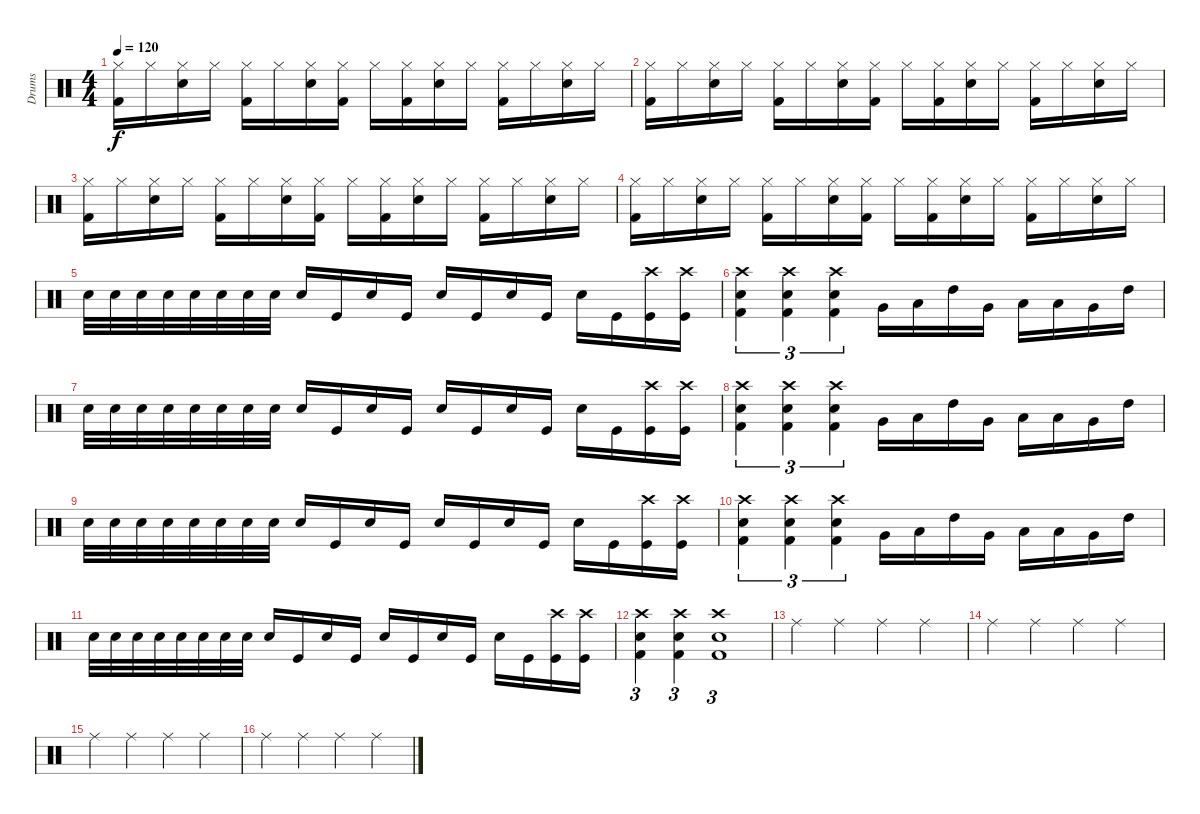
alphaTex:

\track ("Drums" "Drums") {instrument percussion}
\staff {score}
\articulation defaults
\ts (4 4)
\tempo 120
\clef neutral
\ks c
("Hi-Hat (closed)" "Kick (hit) 2").16{dy f} "Hi-Hat (closed)".16 ("Hi-Hat (closed)" "Electric Snare (hit)").16 "Hi-Hat (closed)".16 ("Hi-Hat (closed)" "Kick (hit) 2").16 "Hi-Hat (closed)".16 ("Hi-Hat (closed)" "Electric Snare (hit)").16 ("Hi-Hat (closed)" "Kick (hit) 2").16 "Hi-Hat (closed)".16 ("Hi-Hat (closed)" "Kick (hit) 2").16 ("Hi-Hat (closed)" "Electric Snare (hit)").16 "Hi-Hat (closed)".16 ("Hi-Hat (closed)" "Kick (hit) 2").16 "Hi-Hat (closed)".16 ("Hi-Hat (closed)" "Electric Snare (hit)").16 "Hi-Hat (closed)".16 |
("Hi-Hat (closed)" "Kick (hit) 2").16 "Hi-Hat (closed)".16 ("Hi-Hat (closed)" "Electric Snare (hit)").16 "Hi-Hat (closed)".16 ("Hi-Hat (closed)" "Kick (hit) 2").16 "Hi-Hat (closed)".16 ("Hi-Hat (closed)" "Electric Snare (hit)").16 ("Hi-Hat (closed)" "Kick (hit) 2").16 "Hi-Hat (closed)".16 ("Hi-Hat (closed)" "Kick (hit) 2").16 ("Hi-Hat (closed)" "Electric Snare (hit)").16 "Hi-Hat (closed)".16 ("Hi-Hat (closed)" "Kick (hit) 2").16 "Hi-Hat (closed)".16 ("Hi-Hat (closed)" "Electric Snare (hit)").16 "Hi-Hat (closed)".16 |
("Hi-Hat (closed)" "Kick (hit) 2").16 "Hi-Hat (closed)".16 ("Hi-Hat (closed)" "Electric Snare (hit)").16 "Hi-Hat (closed)".16 ("Hi-Hat (closed)" "Kick (hit) 2").16 "Hi-Hat (closed)".16 ("Hi-Hat (closed)" "Electric Snare (hit)").16 ("Hi-Hat (closed)" "Kick (hit) 2").16 "Hi-Hat (closed)".16 ("Hi-Hat (closed)" "Kick (hit) 2").16 ("Hi-Hat (closed)" "Electric Snare (hit)").16 "Hi-Hat (closed)".16 ("Hi-Hat (closed)" "Kick (hit) 2").16 "Hi-Hat (closed)".16 ("Hi-Hat (closed)" "Electric Snare (hit)").16 "Hi-Hat (closed)".16 |
("Hi-Hat (closed)" "Kick (hit) 2").16 "Hi-Hat (closed)".16 ("Hi-Hat (closed)" "Electric Snare (hit)").16 "Hi-Hat (closed)".16 ("Hi-Hat (closed)" "Kick (hit) 2").16 "Hi-Hat (closed)".16 ("Hi-Hat (closed)" "Electric Snare (hit)").16 ("Hi-Hat (closed)" "Kick (hit) 2").16 "Hi-Hat (closed)".16 ("Hi-Hat (closed)" "Kick (hit) 2").16 ("Hi-Hat (closed)" "Electric Snare (hit)").16 "Hi-Hat (closed)".16 ("Hi-Hat (closed)" "Kick (hit) 2").16 "Hi-Hat (closed)".16 ("Hi-Hat (closed)" "Electric Snare (hit)").16 "Hi-Hat (closed)".16 |
"Snare (hit) 2".32 "Snare (hit) 2".32 "Snare (hit) 2".32 "Snare (hit) 2".32 "Snare (hit) 2".32 "Snare (hit) 2".32 "Snare (hit) 2".32 "Snare (hit) 2".32 "Snare (hit) 2".16 "Kick (hit)".16 "Snare (hit) 2".16 "Kick (hit)".16 "Snare (hit) 2".16 "Kick (hit)".16 "Snare (hit) 2".16 "Kick (hit)".16 "Snare (hit) 2".16 "Kick (hit)".16 ("Crash high (hit)" "Kick (hit)").16 ("Crash high (hit)" "Kick (hit)").16 |
("Crash high (hit)" "Electric Snare (hit)" "Kick (hit) 2").4{tu (3 2)} ("Crash high (hit)" "Electric Snare (hit)" "Kick (hit) 2").4{tu (3 2)} ("Crash high (hit)" "Electric Snare (hit)" "Kick (hit) 2").4{tu (3 2)} "Very Low Tom (hit)".16 "Low Tom (hit)".16 "High Tom (hit)".16 "Very Low Tom (hit)".16 "Low Tom (hit)".16 "Low Floor Tom (hit)".16 "Very Low Tom (hit)".16 "High Tom (hit)".16 |
"Snare (hit) 2".32 "Snare (hit) 2".32 "Snare (hit) 2".32 "Snare (hit) 2".32 "Snare (hit) 2".32 "Snare (hit) 2".32 "Snare (hit) 2".32 "Snare (hit) 2".32 "Snare (hit) 2".16 "Kick (hit)".16 "Snare (hit) 2".16 "Kick (hit)".16 "Snare (hit) 2".16 "Kick (hit)".16 "Snare (hit) 2".16 "Kick (hit)".16 "Snare (hit) 2".16 "Kick (hit)".16 ("Crash high (hit)" "Kick (hit)").16 ("Crash high (hit)" "Kick (hit)").16 |
("Crash high (hit)" "Electric Snare (hit)" "Kick (hit) 2").4{tu (3 2)} ("Crash high (hit)" "Electric Snare (hit)" "Kick (hit) 2").4{tu (3 2)} ("Crash high (hit)" "Electric Snare (hit)" "Kick (hit) 2").4{tu (3 2)} "Very Low Tom (hit)".16 "Low Tom (hit)".16 "High Tom (hit)".16 "Very Low Tom (hit)".16 "Low Tom (hit)".16 "Low Floor Tom (hit)".16 "Very Low Tom (hit)".16 "High Tom (hit)".16 |
"Snare (hit) 2".32 "Snare (hit) 2".32 "Snare (hit) 2".32 "Snare (hit) 2".32 "Snare (hit) 2".32 "Snare (hit) 2".32 "Snare (hit) 2".32 "Snare (hit) 2".32 "Snare (hit) 2".16 "Kick (hit)".16 "Snare (hit) 2".16 "Kick (hit)".16 "Snare (hit) 2".16 "Kick (hit)".16 "Snare (hit) 2".16 "Kick (hit)".16 "Snare (hit) 2".16 "Kick (hit)".16 ("Crash high (hit)" "Kick (hit)").16 ("Crash high (hit)" "Kick (hit)").16 |
("Crash high (hit)" "Electric Snare (hit)" "Kick (hit) 2").4{tu (3 2)} ("Crash high (hit)" "Electric Snare (hit)" "Kick (hit) 2").4{tu (3 2)} ("Crash high (hit)" "Electric Snare (hit)" "Kick (hit) 2").4{tu (3 2)} "Very Low Tom (hit)".16 "Low Tom (hit)".16 "High Tom (hit)".16 "Very Low Tom (hit)".16 "Low Tom (hit)".16 "Low Floor Tom (hit)".16 "Very Low Tom (hit)".16 "High Tom (hit)".16 |
"Snare (hit) 2".32 "Snare (hit) 2".32 "Snare (hit) 2".32 "Snare (hit) 2".32 "Snare (hit) 2".32 "Snare (hit) 2".32 "Snare (hit) 2".32 "Snare (hit) 2".32 "Snare (hit) 2".16 "Kick (hit)".16 "Snare (hit) 2".16 "Kick (hit)".16 "Snare (hit) 2".16 "Kick (hit)".16 "Snare (hit) 2".16 "Kick (hit)".16 "Snare (hit) 2".16 "Kick (hit)".16 ("Crash high (hit)" "Kick (hit)").16 ("Crash high (hit)" "Kick (hit)").16 |
("Crash high (hit)" "Electric Snare (hit)" "Kick (hit) 2").4{tu (3 2)} ("Crash high (hit)" "Electric Snare (hit)" "Kick (hit) 2").4{tu (3 2)} ("Crash high (hit)" "Electric Snare (hit)" "Kick (hit) 2").1{tu (3 2)} |
"Ride (middle)".4 "Ride (middle)".4 "Ride (middle)".4 "Ride (middle)".4 |
"Ride (middle)".4 "Ride (middle)".4 "Ride (middle)".4 "Ride (middle)".4 |
"Ride (middle)".4 "Ride (middle)".4 "Ride (middle)".4 "Ride (middle)".4 |
"Ride (middle)".4 "Ride (middle)".4 "Ride (middle)".4 "Ride (middle)".4
